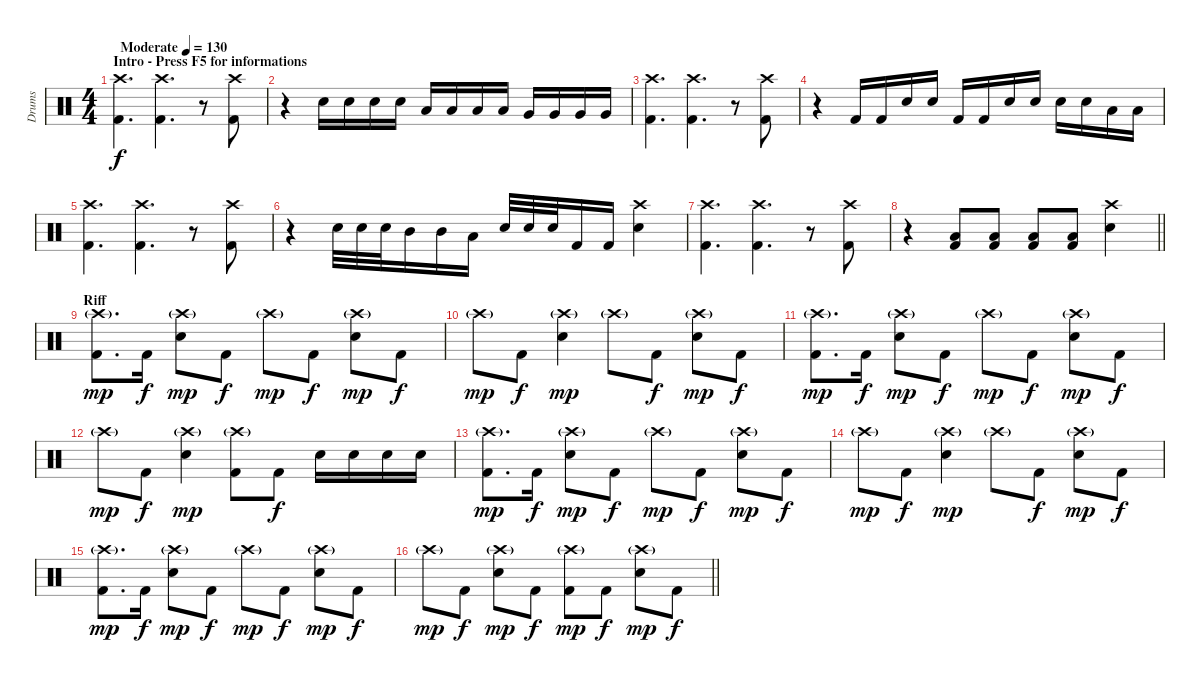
\track ("Drums" "Drums") {instrument percussion}
\staff {score}
\articulation defaults
\ts (4 4)
\section ("" "Intro - Press F5 for informations")
\tempo (130 "Moderate")
\clef neutral
\ks c
("Crash high (hit)" "Kick (hit) 2").4{d dy f} ("Crash high (hit)" "Kick (hit) 2").4{d} r.8 ("Crash high (hit)" "Kick (hit) 2").8 |
r.4 "Electric Snare (hit)".16 "Electric Snare (hit)".16 "Electric Snare (hit)".16 "Electric Snare (hit)".16 "Low Tom (hit)".16 "Low Tom (hit)".16 "Low Tom (hit)".16 "Low Tom (hit)".16 "Very Low Tom (hit)".16 "Very Low Tom (hit)".16 "Very Low Tom (hit)".16 "Very Low Tom (hit)".16 |
("Crash high (hit)" "Kick (hit) 2").4{d} ("Crash high (hit)" "Kick (hit) 2").4{d} r.8 ("Crash high (hit)" "Kick (hit) 2").8 |
r.4 "Kick (hit) 2".16 "Kick (hit) 2".16 "Electric Snare (hit)".16 "Electric Snare (hit)".16 "Kick (hit) 2".16 "Kick (hit) 2".16 "Electric Snare (hit)".16 "Electric Snare (hit)".16 "Electric Snare (hit)".16 "Electric Snare (hit)".16 "Low Tom (hit)".16 "Low Tom (hit)".16 |
("Crash high (hit)" "Kick (hit) 2").4{d} ("Crash high (hit)" "Kick (hit) 2").4{d} r.8 ("Crash high (hit)" "Kick (hit) 2").8 |
r.4 "Electric Snare (hit)".32 "Electric Snare (hit)".32 "Electric Snare (hit)".32 "Mid Tom (hit)".16 "Mid Tom (hit)".16 "Low Tom (hit)".16 "Electric Snare (hit)".32 "Electric Snare (hit)".32 "Electric Snare (hit)".32 "Kick (hit) 2".16 "Kick (hit) 2".16 ("Crash high (hit)" "Electric Snare (hit)").4 |
("Crash high (hit)" "Kick (hit) 2").4{d} ("Crash high (hit)" "Kick (hit) 2").4{d} r.8 ("Crash high (hit)" "Kick (hit) 2").8 |
\barLineRight lightlight
r.4 ("Low Tom (hit)" "Kick (hit) 2").8 ("Low Tom (hit)" "Kick (hit) 2").8 ("Low Tom (hit)" "Kick (hit) 2").8 ("Low Tom (hit)" "Kick (hit) 2").8 ("Crash high (hit)" "Electric Snare (hit)").4 |
\section ("" "Riff")
("Crash high (hit)"{g} "Kick (hit) 2").8{d dy mp} "Kick (hit) 2".16{dy f} ("Crash high (hit)"{g} "Electric Snare (hit)").8{dy mp} "Kick (hit) 2".8{dy f} "Crash high (hit)"{g}.8{dy mp} "Kick (hit) 2".8{dy f} ("Crash high (hit)"{g} "Electric Snare (hit)").8{dy mp} "Kick (hit) 2".8{dy f} |
"Crash high (hit)"{g}.8{dy mp} "Kick (hit) 2".8{dy f} ("Crash high (hit)"{g} "Electric Snare (hit)").4{dy mp} "Crash high (hit)"{g}.8 "Kick (hit) 2".8{dy f} ("Crash high (hit)"{g} "Electric Snare (hit)").8{dy mp} "Kick (hit) 2".8{dy f} |
("Crash high (hit)"{g} "Kick (hit) 2").8{d dy mp} "Kick (hit) 2".16{dy f} ("Crash high (hit)"{g} "Electric Snare (hit)").8{dy mp} "Kick (hit) 2".8{dy f} "Crash high (hit)"{g}.8{dy mp} "Kick (hit) 2".8{dy f} ("Crash high (hit)"{g} "Electric Snare (hit)").8{dy mp} "Kick (hit) 2".8{dy f} |
"Crash high (hit)"{g}.8{dy mp} "Kick (hit) 2".8{dy f} ("Crash high (hit)"{g} "Electric Snare (hit)").4{dy mp} ("Crash high (hit)"{g} "Kick (hit) 2").8 "Kick (hit) 2".8{dy f} "Electric Snare (hit)".16 "Electric Snare (hit)".16 "Electric Snare (hit)".16 "Electric Snare (hit)".16 |
("Crash high (hit)"{g} "Kick (hit) 2").8{d dy mp} "Kick (hit) 2".16{dy f} ("Crash high (hit)"{g} "Electric Snare (hit)").8{dy mp} "Kick (hit) 2".8{dy f} "Crash high (hit)"{g}.8{dy mp} "Kick (hit) 2".8{dy f} ("Crash high (hit)"{g} "Electric Snare (hit)").8{dy mp} "Kick (hit) 2".8{dy f} |
"Crash high (hit)"{g}.8{dy mp} "Kick (hit) 2".8{dy f} ("Crash high (hit)"{g} "Electric Snare (hit)").4{dy mp} "Crash high (hit)"{g}.8 "Kick (hit) 2".8{dy f} ("Crash high (hit)"{g} "Electric Snare (hit)").8{dy mp} "Kick (hit) 2".8{dy f} |
("Crash high (hit)"{g} "Kick (hit) 2").8{d dy mp} "Kick (hit) 2".16{dy f} ("Crash high (hit)"{g} "Electric Snare (hit)").8{dy mp} "Kick (hit) 2".8{dy f} "Crash high (hit)"{g}.8{dy mp} "Kick (hit) 2".8{dy f} ("Crash high (hit)"{g} "Electric Snare (hit)").8{dy mp} "Kick (hit) 2".8{dy f} |
\barLineRight lightlight "Crash high (hit)"{g}.8{dy mp} "Kick (hit) 2".8{dy f}
("Crash high (hit)"{g} "Electric Snare (hit)").8{dy mp} "Kick (hit) 2".8{dy f} ("Crash high (hit)"{g} "Kick (hit) 2").8{dy mp} "Kick (hit) 2".8{dy f} ("Crash high (hit)"{g} "Electric Snare (hit)").8{dy mp} "Kick (hit) 2".8{dy f}
